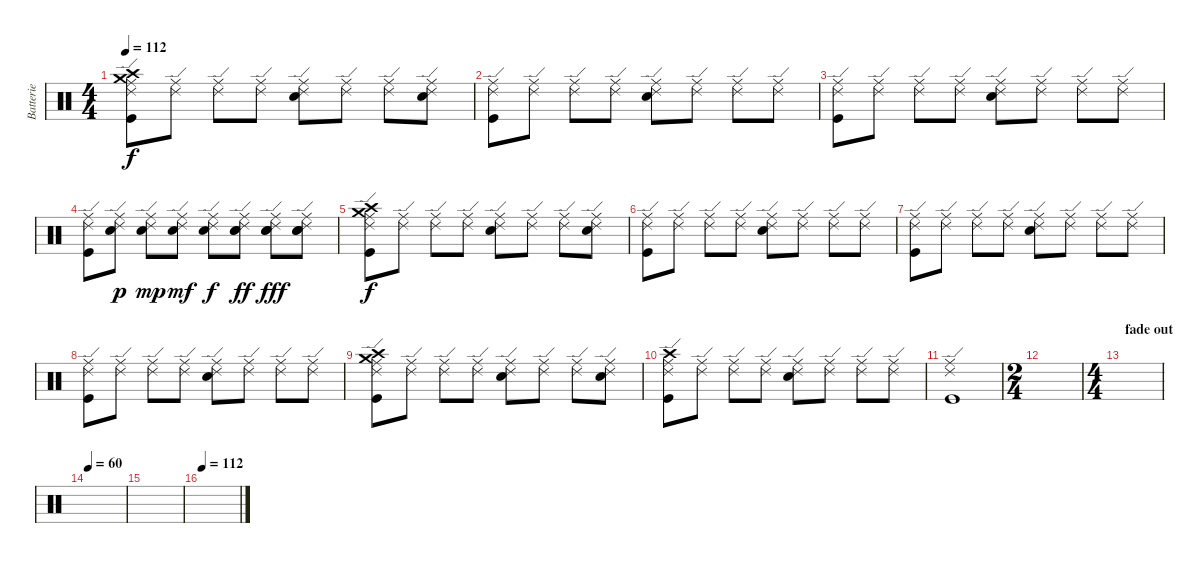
\track ("Batterie" "Batterie") {instrument percussion}
\staff {score}
\articulation defaults
\ts (4 4)
\tempo 112
\clef neutral
\ks c
("Crash high (hit)" "Crash medium (hit)" "Ride (middle)" "Ride (edge) 2" "Kick (hit)").8{dy f} ("Ride (middle)" "Ride (edge) 2").8 ("Ride (middle)" "Ride (edge) 2").8 ("Ride (middle)" "Ride (edge) 2").8 ("Ride (middle)" "Ride (edge) 2" "Snare (hit) 2").8 ("Ride (middle)" "Ride (edge) 2").8 ("Ride (middle)" "Ride (edge) 2").8 ("Ride (middle)" "Ride (edge) 2" "Snare (hit) 2").8 |
("Ride (middle)" "Ride (edge) 2" "Kick (hit)").8 ("Ride (middle)" "Ride (edge) 2").8 ("Ride (middle)" "Ride (edge) 2").8 ("Ride (middle)" "Ride (edge) 2").8 ("Ride (middle)" "Ride (edge) 2" "Snare (hit) 2").8 ("Ride (middle)" "Ride (edge) 2").8 ("Ride (middle)" "Ride (edge) 2").8 ("Ride (middle)" "Ride (edge) 2").8 |
("Ride (middle)" "Ride (edge) 2" "Kick (hit)").8 ("Ride (middle)" "Ride (edge) 2").8 ("Ride (middle)" "Ride (edge) 2").8 ("Ride (middle)" "Ride (edge) 2").8 ("Ride (middle)" "Ride (edge) 2" "Snare (hit) 2").8 ("Ride (middle)" "Ride (edge) 2").8 ("Ride (middle)" "Ride (edge) 2").8 ("Ride (middle)" "Ride (edge) 2").8 |
("Ride (middle)" "Ride (edge) 2" "Kick (hit)").8 ("Ride (middle)" "Ride (edge) 2" "Snare (hit) 2").8{dy p} ("Ride (middle)" "Ride (edge) 2" "Snare (hit) 2").8{dy mp} ("Ride (middle)" "Ride (edge) 2" "Snare (hit) 2").8{dy mf} ("Ride (middle)" "Ride (edge) 2" "Snare (hit) 2").8{dy f} ("Ride (middle)" "Ride (edge) 2" "Snare (hit) 2" "Snare (hit) 2").8{dy ff} ("Ride (middle)" "Ride (edge) 2" "Snare (hit) 2" "Snare (hit) 2").8{dy fff} ("Ride (middle)" "Ride (edge) 2" "Snare (hit) 2" "Snare (hit) 2").8 |
("Crash high (hit)" "Crash medium (hit)" "Ride (middle)" "Ride (edge) 2" "Kick (hit)").8{dy f} ("Ride (middle)" "Ride (edge) 2").8 ("Ride (middle)" "Ride (edge) 2").8 ("Ride (middle)" "Ride (edge) 2").8 ("Ride (middle)" "Ride (edge) 2" "Snare (hit) 2").8 ("Ride (middle)" "Ride (edge) 2").8 ("Ride (middle)" "Ride (edge) 2").8 ("Ride (middle)" "Ride (edge) 2" "Snare (hit) 2").8 |
("Ride (middle)" "Ride (edge) 2" "Kick (hit)").8 ("Ride (middle)" "Ride (edge) 2").8 ("Ride (middle)" "Ride (edge) 2").8 ("Ride (middle)" "Ride (edge) 2").8 ("Ride (middle)" "Ride (edge) 2" "Snare (hit) 2").8 ("Ride (middle)" "Ride (edge) 2").8 ("Ride (middle)" "Ride (edge) 2").8 ("Ride (middle)" "Ride (edge) 2").8 |
("Ride (middle)" "Ride (edge) 2" "Kick (hit)").8 ("Ride (middle)" "Ride (edge) 2").8 ("Ride (middle)" "Ride (edge) 2").8 ("Ride (middle)" "Ride (edge) 2").8 ("Ride (middle)" "Ride (edge) 2" "Snare (hit) 2").8 ("Ride (middle)" "Ride (edge) 2").8 ("Ride (middle)" "Ride (edge) 2").8 ("Ride (middle)" "Ride (edge) 2").8 |
("Ride (middle)" "Ride (edge) 2" "Kick (hit)").8 ("Ride (middle)" "Ride (edge) 2").8 ("Ride (middle)" "Ride (edge) 2").8 ("Ride (middle)" "Ride (edge) 2").8 ("Ride (middle)" "Ride (edge) 2" "Snare (hit) 2").8 ("Ride (middle)" "Ride (edge) 2").8 ("Ride (middle)" "Ride (edge) 2").8 ("Ride (middle)" "Ride (edge) 2").8 |
("Crash high (hit)" "Crash medium (hit)" "Ride (middle)" "Ride (edge) 2" "Kick (hit)").8 ("Ride (middle)" "Ride (edge) 2").8 ("Ride (middle)" "Ride (edge) 2").8 ("Ride (middle)" "Ride (edge) 2").8 ("Ride (middle)" "Ride (edge) 2" "Snare (hit) 2").8 ("Ride (middle)" "Ride (edge) 2").8 ("Ride (middle)" "Ride (edge) 2").8 ("Ride (middle)" "Ride (edge) 2" "Snare (hit) 2").8 |
("Ride (middle)" "Crash high (hit)" "Ride (edge) 2" "Kick (hit)").8 ("Ride (middle)" "Ride (edge) 2").8 ("Ride (middle)" "Ride (edge) 2").8 ("Ride (middle)" "Ride (edge) 2").8 ("Ride (middle)" "Ride (edge) 2" "Snare (hit) 2").8 ("Ride (middle)" "Ride (edge) 2").8 ("Ride (middle)" "Ride (edge) 2").8 ("Ride (middle)" "Ride (edge) 2").8 |
("Ride (middle)" "Ride (edge) 2" "Kick (hit)").1 |
\ts (2 4)
|
\ts (4 4)
\section ("" "fade out")
|
\tempo 60
|
|
\tempo 112
